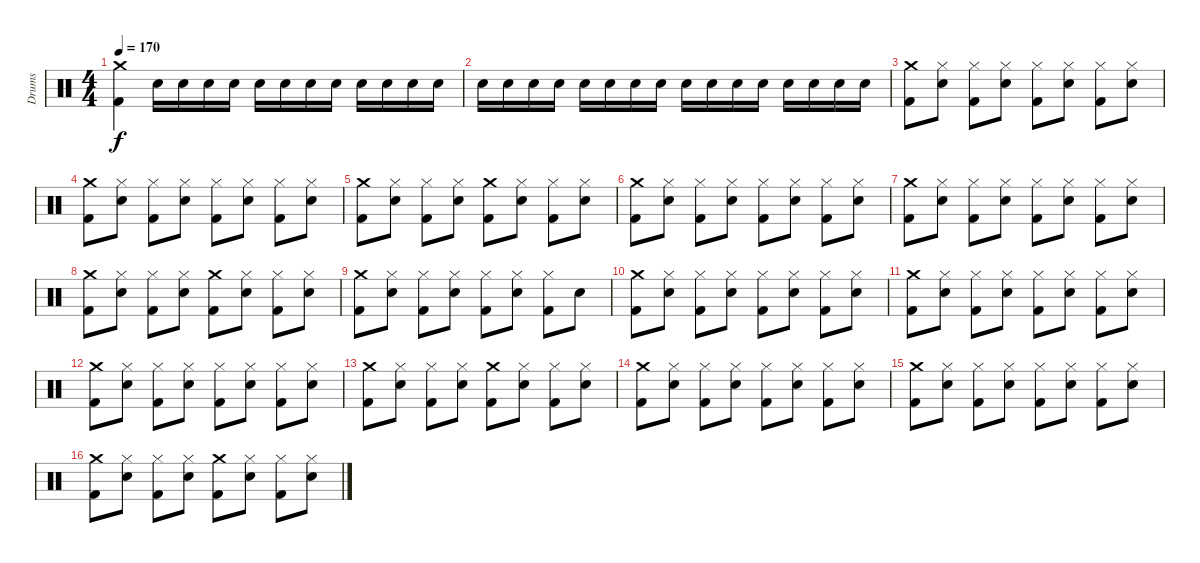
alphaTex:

\track ("Drums" "Drums") {instrument percussion}
\staff {score}
\articulation defaults
\ts (4 4)
\tempo 170
\clef neutral
\ks c
("Crash medium (hit)" "Kick (hit) 2").4{dy f} "Snare (hit) 2".16 "Snare (hit) 2".16 "Snare (hit) 2".16 "Snare (hit) 2".16 "Snare (hit) 2".16 "Snare (hit) 2".16 "Snare (hit) 2".16 "Snare (hit) 2".16 "Snare (hit) 2".16 "Snare (hit) 2".16 "Snare (hit) 2".16 "Snare (hit) 2".16 |
"Snare (hit) 2".16 "Snare (hit) 2".16 "Snare (hit) 2".16 "Snare (hit) 2".16 "Snare (hit) 2".16 "Snare (hit) 2".16 "Snare (hit) 2".16 "Snare (hit) 2".16 "Snare (hit) 2".16 "Snare (hit) 2".16 "Snare (hit) 2".16 "Snare (hit) 2".16 "Snare (hit) 2".16 "Snare (hit) 2".16 "Snare (hit) 2".16 "Snare (hit) 2".16 |
("Crash medium (hit)" "Kick (hit) 2").8 ("Snare (hit) 2" "Hi-Hat (closed)").8 ("Hi-Hat (closed)" "Kick (hit) 2").8 ("Snare (hit) 2" "Hi-Hat (closed)").8 ("Hi-Hat (closed)" "Kick (hit) 2").8 ("Snare (hit) 2" "Hi-Hat (closed)").8 ("Hi-Hat (closed)" "Kick (hit) 2").8 ("Snare (hit) 2" "Hi-Hat (closed)").8 |
("Crash medium (hit)" "Kick (hit) 2").8 ("Snare (hit) 2" "Hi-Hat (closed)").8 ("Hi-Hat (closed)" "Kick (hit) 2").8 ("Snare (hit) 2" "Hi-Hat (closed)").8 ("Hi-Hat (closed)" "Kick (hit) 2").8 ("Snare (hit) 2" "Hi-Hat (closed)").8 ("Hi-Hat (closed)" "Kick (hit) 2").8 ("Snare (hit) 2" "Hi-Hat (closed)").8 |
("Crash medium (hit)" "Kick (hit) 2").8 ("Snare (hit) 2" "Hi-Hat (closed)").8 ("Hi-Hat (closed)" "Kick (hit) 2").8 ("Snare (hit) 2" "Hi-Hat (closed)").8 ("Crash medium (hit)" "Kick (hit) 2").8 ("Snare (hit) 2" "Hi-Hat (closed)").8 ("Hi-Hat (closed)" "Kick (hit) 2").8 ("Snare (hit) 2" "Hi-Hat (closed)").8 |
("Crash medium (hit)" "Kick (hit) 2").8 ("Snare (hit) 2" "Hi-Hat (closed)").8 ("Hi-Hat (closed)" "Kick (hit) 2").8 ("Snare (hit) 2" "Hi-Hat (closed)").8 ("Hi-Hat (closed)" "Kick (hit) 2").8 ("Snare (hit) 2" "Hi-Hat (closed)").8 ("Hi-Hat (closed)" "Kick (hit) 2").8 ("Snare (hit) 2" "Hi-Hat (closed)").8 |
("Crash medium (hit)" "Kick (hit) 2").8 ("Snare (hit) 2" "Hi-Hat (closed)").8 ("Hi-Hat (closed)" "Kick (hit) 2").8 ("Snare (hit) 2" "Hi-Hat (closed)").8 ("Hi-Hat (closed)" "Kick (hit) 2").8 ("Snare (hit) 2" "Hi-Hat (closed)").8 ("Hi-Hat (closed)" "Kick (hit) 2").8 ("Snare (hit) 2" "Hi-Hat (closed)").8 |
("Crash medium (hit)" "Kick (hit) 2").8 ("Snare (hit) 2" "Hi-Hat (closed)").8 ("Hi-Hat (closed)" "Kick (hit) 2").8 ("Snare (hit) 2" "Hi-Hat (closed)").8 ("Crash medium (hit)" "Kick (hit) 2").8 ("Snare (hit) 2" "Hi-Hat (closed)").8 ("Hi-Hat (closed)" "Kick (hit) 2").8 ("Snare (hit) 2" "Hi-Hat (closed)").8 |
("Crash medium (hit)" "Kick (hit) 2").8 ("Snare (hit) 2" "Hi-Hat (closed)").8 ("Hi-Hat (closed)" "Kick (hit) 2").8 ("Snare (hit) 2" "Hi-Hat (closed)").8 ("Hi-Hat (closed)" "Kick (hit) 2").8 ("Snare (hit) 2" "Hi-Hat (closed)").8 ("Hi-Hat (closed)" "Kick (hit) 2").8 "Snare (hit) 2".8 |
("Crash medium (hit)" "Kick (hit) 2").8 ("Snare (hit) 2" "Hi-Hat (closed)").8 ("Hi-Hat (closed)" "Kick (hit) 2").8 ("Snare (hit) 2" "Hi-Hat (closed)").8 ("Hi-Hat (closed)" "Kick (hit) 2").8 ("Snare (hit) 2" "Hi-Hat (closed)").8 ("Hi-Hat (closed)" "Kick (hit) 2").8 ("Snare (hit) 2" "Hi-Hat (closed)").8 |
("Crash medium (hit)" "Kick (hit) 2").8 ("Snare (hit) 2" "Hi-Hat (closed)").8 ("Hi-Hat (closed)" "Kick (hit) 2").8 ("Snare (hit) 2" "Hi-Hat (closed)").8 ("Hi-Hat (closed)" "Kick (hit) 2").8 ("Snare (hit) 2" "Hi-Hat (closed)").8 ("Hi-Hat (closed)" "Kick (hit) 2").8 ("Snare (hit) 2" "Hi-Hat (closed)").8 |
("Crash medium (hit)" "Kick (hit) 2").8 ("Snare (hit) 2" "Hi-Hat (closed)").8 ("Hi-Hat (closed)" "Kick (hit) 2").8 ("Snare (hit) 2" "Hi-Hat (closed)").8 ("Hi-Hat (closed)" "Kick (hit) 2").8 ("Snare (hit) 2" "Hi-Hat (closed)").8 ("Hi-Hat (closed)" "Kick (hit) 2").8 ("Snare (hit) 2" "Hi-Hat (closed)").8 |
("Crash medium (hit)" "Kick (hit) 2").8 ("Snare (hit) 2" "Hi-Hat (closed)").8 ("Hi-Hat (closed)" "Kick (hit) 2").8 ("Snare (hit) 2" "Hi-Hat (closed)").8 ("Crash medium (hit)" "Kick (hit) 2").8 ("Snare (hit) 2" "Hi-Hat (closed)").8 ("Hi-Hat (closed)" "Kick (hit) 2").8 ("Snare (hit) 2" "Hi-Hat (closed)").8 |
("Crash medium (hit)" "Kick (hit) 2").8 ("Snare (hit) 2" "Hi-Hat (closed)").8 ("Hi-Hat (closed)" "Kick (hit) 2").8 ("Snare (hit) 2" "Hi-Hat (closed)").8 ("Hi-Hat (closed)" "Kick (hit) 2").8 ("Snare (hit) 2" "Hi-Hat (closed)").8 ("Hi-Hat (closed)" "Kick (hit) 2").8 ("Snare (hit) 2" "Hi-Hat (closed)").8 |
("Crash medium (hit)" "Kick (hit) 2").8 ("Snare (hit) 2" "Hi-Hat (closed)").8 ("Hi-Hat (closed)" "Kick (hit) 2").8 ("Snare (hit) 2" "Hi-Hat (closed)").8 ("Hi-Hat (closed)" "Kick (hit) 2").8 ("Snare (hit) 2" "Hi-Hat (closed)").8 ("Hi-Hat (closed)" "Kick (hit) 2").8 ("Snare (hit) 2" "Hi-Hat (closed)").8 |
("Crash medium (hit)" "Kick (hit) 2").8 ("Snare (hit) 2" "Hi-Hat (closed)").8 ("Hi-Hat (closed)" "Kick (hit) 2").8 ("Snare (hit) 2" "Hi-Hat (closed)").8 ("Crash medium (hit)" "Kick (hit) 2").8 ("Snare (hit) 2" "Hi-Hat (closed)").8 ("Hi-Hat (closed)" "Kick (hit) 2").8 ("Snare (hit) 2" "Hi-Hat (closed)").8
